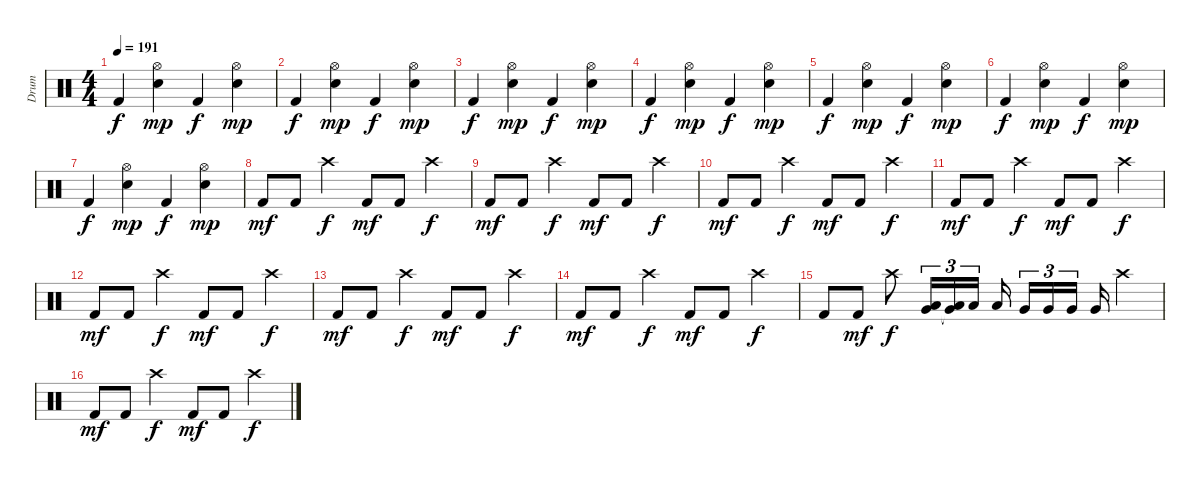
\track ("Drum" "Drum") {instrument percussion}
\staff {score}
\articulation defaults
\ts (4 4)
\tempo 191
\clef neutral
\ks c "Kick (hit) 2".4{dy f}
("Snare (hit) 2" "Hi-Hat (open)").4{dy mp} "Kick (hit) 2".4{dy f} ("Snare (hit) 2" "Hi-Hat (open)").4{dy mp} |
"Kick (hit) 2".4{dy f} ("Snare (hit) 2" "Hi-Hat (open)").4{dy mp} "Kick (hit) 2".4{dy f} ("Snare (hit) 2" "Hi-Hat (open)").4{dy mp} |
"Kick (hit) 2".4{dy f} ("Snare (hit) 2" "Hi-Hat (open)").4{dy mp} "Kick (hit) 2".4{dy f} ("Snare (hit) 2" "Hi-Hat (open)").4{dy mp} |
"Kick (hit) 2".4{dy f} ("Snare (hit) 2" "Hi-Hat (open)").4{dy mp} "Kick (hit) 2".4{dy f} ("Snare (hit) 2" "Hi-Hat (open)").4{dy mp} |
"Kick (hit) 2".4{dy f} ("Snare (hit) 2" "Hi-Hat (open)").4{dy mp} "Kick (hit) 2".4{dy f} ("Snare (hit) 2" "Hi-Hat (open)").4{dy mp} |
"Kick (hit) 2".4{dy f} ("Snare (hit) 2" "Hi-Hat (open)").4{dy mp} "Kick (hit) 2".4{dy f} ("Snare (hit) 2" "Hi-Hat (open)").4{dy mp} |
"Kick (hit) 2".4{dy f} ("Snare (hit) 2" "Hi-Hat (open)").4{dy mp} "Kick (hit) 2".4{dy f} ("Snare (hit) 2" "Hi-Hat (open)").4{dy mp} |
"Kick (hit) 2".8{dy mf} "Kick (hit) 2".8 "Crash high (hit)".4{dy f} "Kick (hit) 2".8{dy mf} "Kick (hit) 2".8 "Crash high (hit)".4{dy f} |
"Kick (hit) 2".8{dy mf} "Kick (hit) 2".8 "Crash high (hit)".4{dy f} "Kick (hit) 2".8{dy mf} "Kick (hit) 2".8 "Crash high (hit)".4{dy f} |
"Kick (hit) 2".8{dy mf} "Kick (hit) 2".8 "Crash high (hit)".4{dy f} "Kick (hit) 2".8{dy mf} "Kick (hit) 2".8 "Crash high (hit)".4{dy f} |
"Kick (hit) 2".8{dy mf} "Kick (hit) 2".8 "Crash high (hit)".4{dy f} "Kick (hit) 2".8{dy mf} "Kick (hit) 2".8 "Crash high (hit)".4{dy f} |
"Kick (hit) 2".8{dy mf} "Kick (hit) 2".8 "Crash high (hit)".4{dy f} "Kick (hit) 2".8{dy mf} "Kick (hit) 2".8 "Crash high (hit)".4{dy f} |
"Kick (hit) 2".8{dy mf} "Kick (hit) 2".8 "Crash high (hit)".4{dy f} "Kick (hit) 2".8{dy mf} "Kick (hit) 2".8 "Crash high (hit)".4{dy f} |
"Kick (hit) 2".8{dy mf} "Kick (hit) 2".8 "Crash high (hit)".4{dy f} "Kick (hit) 2".8{dy mf} "Kick (hit) 2".8 "Crash high (hit)".4{dy f} |
"Kick (hit) 2".8 "Kick (hit) 2".8{dy mf} "Crash high (hit)".8{dy f} ("Low Floor Tom (hit)" "Very Low Tom (hit)").16{tu (3 2)} ("Low Floor Tom (hit)" "Very Low Tom (hit)"{t}).16{tu (3 2)} "Low Floor Tom (hit)".16{tu (3 2)} "Low Floor Tom (hit)".16{beam splitsecondary} "Very Low Tom (hit)".16{tu (3 2)} "Very Low Tom (hit)".16{tu (3 2)} "Very Low Tom (hit)".16{tu (3 2) beam splitsecondary} "Very Low Tom (hit)".16 "Crash high (hit)".4 |
"Kick (hit) 2".8{dy mf} "Kick (hit) 2".8 "Crash high (hit)".4{dy f} "Kick (hit) 2".8{dy mf} "Kick (hit) 2".8 "Crash high (hit)".4{dy f}
